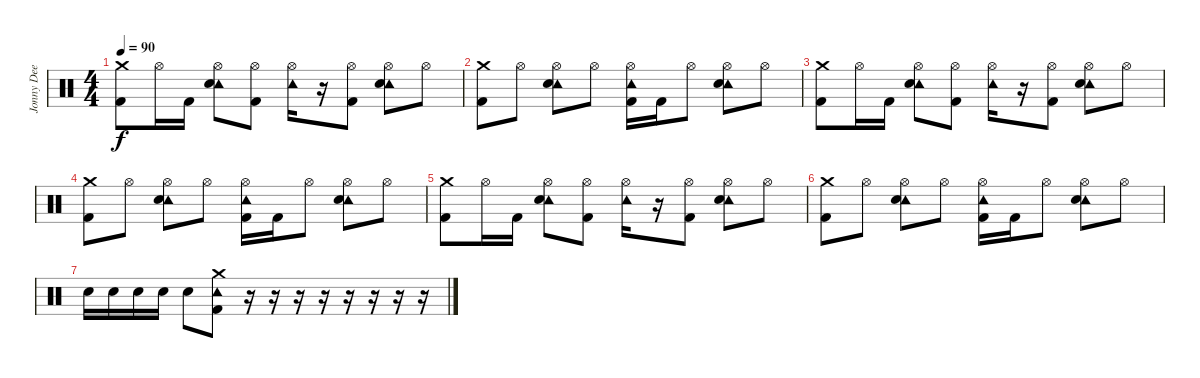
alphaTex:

\track ("Jonny Dee" "Jonny Dee") {instrument percussion}
\staff {score}
\articulation defaults
\ts (4 4)
\tempo 90
\clef neutral
\ks c
("Crash medium (hit)" "Kick (hit) 2").8{dy f} "Hi-Hat (open)".16 "Kick (hit) 2".16 ("Tambourine (hit)" "Hi-Hat (open)" "Snare (hit) 2").8 ("Hi-Hat (open)" "Kick (hit) 2").8 ("Tambourine (hit)" "Hi-Hat (open)").16 r.16 ("Hi-Hat (open)" "Kick (hit) 2").8 ("Tambourine (hit)" "Hi-Hat (open)" "Snare (hit) 2").8 "Hi-Hat (open)".8 |
("Crash medium (hit)" "Kick (hit) 2").8 "Hi-Hat (open)".8 ("Tambourine (hit)" "Hi-Hat (open)" "Snare (hit) 2").8 "Hi-Hat (open)".8 ("Tambourine (hit)" "Hi-Hat (open)" "Kick (hit) 2").16 "Kick (hit) 2".16 "Hi-Hat (open)".8 ("Tambourine (hit)" "Hi-Hat (open)" "Snare (hit) 2").8 "Hi-Hat (open)".8 |
("Crash medium (hit)" "Kick (hit) 2").8 "Hi-Hat (open)".16 "Kick (hit) 2".16 ("Tambourine (hit)" "Hi-Hat (open)" "Snare (hit) 2").8 ("Hi-Hat (open)" "Kick (hit) 2").8 ("Tambourine (hit)" "Hi-Hat (open)").16 r.16 ("Hi-Hat (open)" "Kick (hit) 2").8 ("Tambourine (hit)" "Hi-Hat (open)" "Snare (hit) 2").8 "Hi-Hat (open)".8 |
("Crash medium (hit)" "Kick (hit) 2").8 "Hi-Hat (open)".8 ("Tambourine (hit)" "Hi-Hat (open)" "Snare (hit) 2").8 "Hi-Hat (open)".8 ("Tambourine (hit)" "Hi-Hat (open)" "Kick (hit) 2").16 "Kick (hit) 2".16 "Hi-Hat (open)".8 ("Tambourine (hit)" "Hi-Hat (open)" "Snare (hit) 2").8 "Hi-Hat (open)".8 |
("Crash medium (hit)" "Kick (hit) 2").8 "Hi-Hat (open)".16 "Kick (hit) 2".16 ("Tambourine (hit)" "Hi-Hat (open)" "Snare (hit) 2").8 ("Hi-Hat (open)" "Kick (hit) 2").8 ("Tambourine (hit)" "Hi-Hat (open)").16 r.16 ("Hi-Hat (open)" "Kick (hit) 2").8 ("Tambourine (hit)" "Hi-Hat (open)" "Snare (hit) 2").8 "Hi-Hat (open)".8 |
("Crash medium (hit)" "Kick (hit) 2").8 "Hi-Hat (open)".8 ("Tambourine (hit)" "Hi-Hat (open)" "Snare (hit) 2").8 "Hi-Hat (open)".8 ("Tambourine (hit)" "Hi-Hat (open)" "Kick (hit) 2").16 "Kick (hit) 2".16 "Hi-Hat (open)".8 ("Tambourine (hit)" "Hi-Hat (open)" "Snare (hit) 2").8 "Hi-Hat (open)".8 |
"Snare (hit) 2".16 "Snare (hit) 2".16 "Snare (hit) 2".16 "Snare (hit) 2".16 "Snare (hit) 2".8 ("Tambourine (hit)" "Crash medium (hit)" "Kick (hit) 2").8 r.16 r.16 r.16 r.16 r.16 r.16 r.16 r.16
